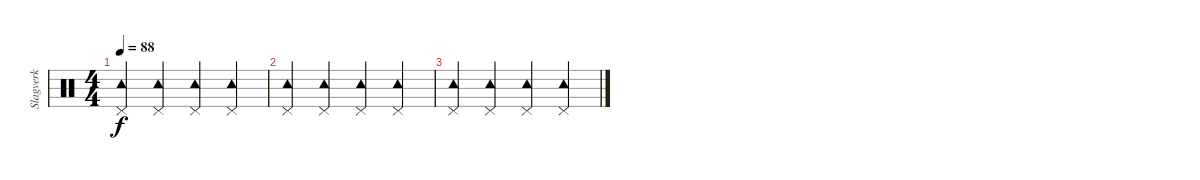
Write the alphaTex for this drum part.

\track ("Slagverk" "Slagverk") {instrument percussion}
\staff {score}
\articulation defaults
\ts (4 4)
\tempo 88
\clef neutral
\ks c
("Pedal Hi-Hat (hit)" "Tambourine (hit)").4{dy f} ("Pedal Hi-Hat (hit)" "Tambourine (hit)").4 ("Pedal Hi-Hat (hit)" "Tambourine (hit)").4 ("Pedal Hi-Hat (hit)" "Tambourine (hit)").4 |
("Pedal Hi-Hat (hit)" "Tambourine (hit)").4 ("Pedal Hi-Hat (hit)" "Tambourine (hit)").4 ("Pedal Hi-Hat (hit)" "Tambourine (hit)").4 ("Pedal Hi-Hat (hit)" "Tambourine (hit)").4 |
("Pedal Hi-Hat (hit)" "Tambourine (hit)").4 ("Pedal Hi-Hat (hit)" "Tambourine (hit)").4 ("Pedal Hi-Hat (hit)" "Tambourine (hit)").4 ("Pedal Hi-Hat (hit)" "Tambourine (hit)").4
